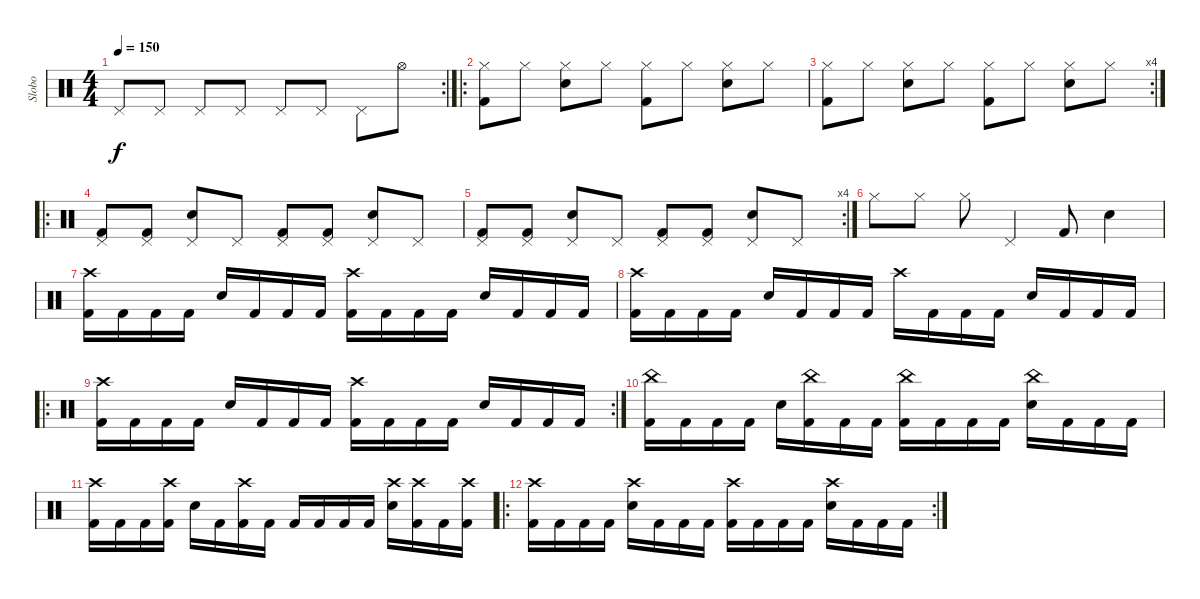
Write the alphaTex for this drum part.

\track ("Slobo" "Slobo") {instrument percussion}
\staff {score}
\articulation defaults
\rc 2
\ts (4 4)
\tempo 150
\clef neutral
\ks c "Pedal Hi-Hat (hit)".8{dy f} "Pedal Hi-Hat (hit)".8 "Pedal Hi-Hat (hit)".8 "Pedal Hi-Hat (hit)".8 "Pedal Hi-Hat (hit)".8 "Pedal Hi-Hat (hit)".8 "Pedal Hi-Hat (hit)".8 "Hi-Hat (open)".8
|
\ro
("Hi-Hat (closed)" "Kick (hit) 2").8 "Hi-Hat (closed)".8 ("Hi-Hat (closed)" "Snare (hit) 2").8 "Hi-Hat (closed)".8 ("Hi-Hat (closed)" "Kick (hit) 2").8 "Hi-Hat (closed)".8 ("Hi-Hat (closed)" "Snare (hit) 2").8 "Hi-Hat (closed)".8 |
\rc 4
("Hi-Hat (closed)" "Kick (hit) 2").8 "Hi-Hat (closed)".8 ("Hi-Hat (closed)" "Snare (hit) 2").8 "Hi-Hat (closed)".8 ("Hi-Hat (closed)" "Kick (hit) 2").8 "Hi-Hat (closed)".8 ("Hi-Hat (closed)" "Snare (hit) 2").8 "Hi-Hat (closed)".8 |
\ro
("Pedal Hi-Hat (hit)" "Kick (hit) 2").8 ("Pedal Hi-Hat (hit)" "Kick (hit) 2").8 ("Pedal Hi-Hat (hit)" "Snare (hit) 2").8 "Pedal Hi-Hat (hit)".8 ("Pedal Hi-Hat (hit)" "Kick (hit) 2").8 ("Pedal Hi-Hat (hit)" "Kick (hit) 2").8 ("Pedal Hi-Hat (hit)" "Snare (hit) 2").8 "Pedal Hi-Hat (hit)".8 |
\rc 4
("Pedal Hi-Hat (hit)" "Kick (hit) 2").8 ("Pedal Hi-Hat (hit)" "Kick (hit) 2").8 ("Pedal Hi-Hat (hit)" "Snare (hit) 2").8 "Pedal Hi-Hat (hit)".8 ("Pedal Hi-Hat (hit)" "Kick (hit) 2").8 ("Pedal Hi-Hat (hit)" "Kick (hit) 2").8 ("Pedal Hi-Hat (hit)" "Snare (hit) 2").8 "Pedal Hi-Hat (hit)".8 |
"Hi-Hat (closed)".8 "Hi-Hat (closed)".8 "Hi-Hat (closed)".8 "Pedal Hi-Hat (hit)".4 "Kick (hit) 2".8 "Snare (hit) 2".4 |
("Crash high (hit)" "Kick (hit) 2").16 "Kick (hit) 2".16 "Kick (hit) 2".16 "Kick (hit) 2".16 "Snare (hit) 2".16 "Kick (hit) 2".16 "Kick (hit) 2".16 "Kick (hit) 2".16 ("Crash high (hit)" "Kick (hit) 2").16 "Kick (hit) 2".16 "Kick (hit) 2".16 "Kick (hit) 2".16 "Snare (hit) 2".16 "Kick (hit) 2".16 "Kick (hit) 2".16 "Kick (hit) 2".16 |
("Crash high (hit)" "Kick (hit) 2").16 "Kick (hit) 2".16 "Kick (hit) 2".16 "Kick (hit) 2".16 "Snare (hit) 2".16 "Kick (hit) 2".16 "Kick (hit) 2".16 "Kick (hit) 2".16 "Crash high (hit)".16 "Kick (hit) 2".16 "Kick (hit) 2".16 "Kick (hit) 2".16 "Snare (hit) 2".16 "Kick (hit) 2".16 "Kick (hit) 2".16 "Kick (hit) 2".16 |
\ro
\rc 2
("Crash high (hit)" "Kick (hit) 2").16 "Kick (hit) 2".16 "Kick (hit) 2".16 "Kick (hit) 2".16 "Snare (hit) 2".16 "Kick (hit) 2".16 "Kick (hit) 2".16 "Kick (hit) 2".16 ("Crash high (hit)" "Kick (hit) 2").16 "Kick (hit) 2".16 "Kick (hit) 2".16 "Kick (hit) 2".16 "Snare (hit) 2".16 "Kick (hit) 2".16 "Kick (hit) 2".16 "Kick (hit) 2".16 |
("Kick (hit) 2" "China (hit)").16 "Kick (hit) 2".16 "Kick (hit) 2".16 "Kick (hit) 2".16 "Snare (hit) 2".16 ("Kick (hit) 2" "China (hit)").16 "Kick (hit) 2".16 "Kick (hit) 2".16 ("Kick (hit) 2" "China (hit)").16 "Kick (hit) 2".16 "Kick (hit) 2".16 "Kick (hit) 2".16 ("Snare (hit) 2" "China (hit)").16 "Kick (hit) 2".16 "Kick (hit) 2".16 "Kick (hit) 2".16 |
("Kick (hit) 2" "Crash high (hit)").16 "Kick (hit) 2".16 "Kick (hit) 2".16 ("Kick (hit) 2" "Crash high (hit)").16 "Snare (hit) 2".16 "Kick (hit) 2".16 ("Kick (hit) 2" "Crash high (hit)").16 "Kick (hit) 2".16 "Kick (hit) 2".16 "Kick (hit) 2".16 "Kick (hit) 2".16 "Kick (hit) 2".16 ("Snare (hit) 2" "Crash high (hit)").16 ("Kick (hit) 2" "Crash high (hit)").16 "Kick (hit) 2".16 ("Kick (hit) 2" "Crash high (hit)").16 |
\ro
\rc 2
("Kick (hit) 2" "Crash high (hit)").16 "Kick (hit) 2".16 "Kick (hit) 2".16 "Kick (hit) 2".16 ("Snare (hit) 2" "Crash high (hit)").16 "Kick (hit) 2".16 "Kick (hit) 2".16 "Kick (hit) 2".16 ("Kick (hit) 2" "Crash high (hit)").16 "Kick (hit) 2".16 "Kick (hit) 2".16 "Kick (hit) 2".16 ("Snare (hit) 2" "Crash high (hit)").16 "Kick (hit) 2".16 "Kick (hit) 2".16 "Kick (hit) 2".16
